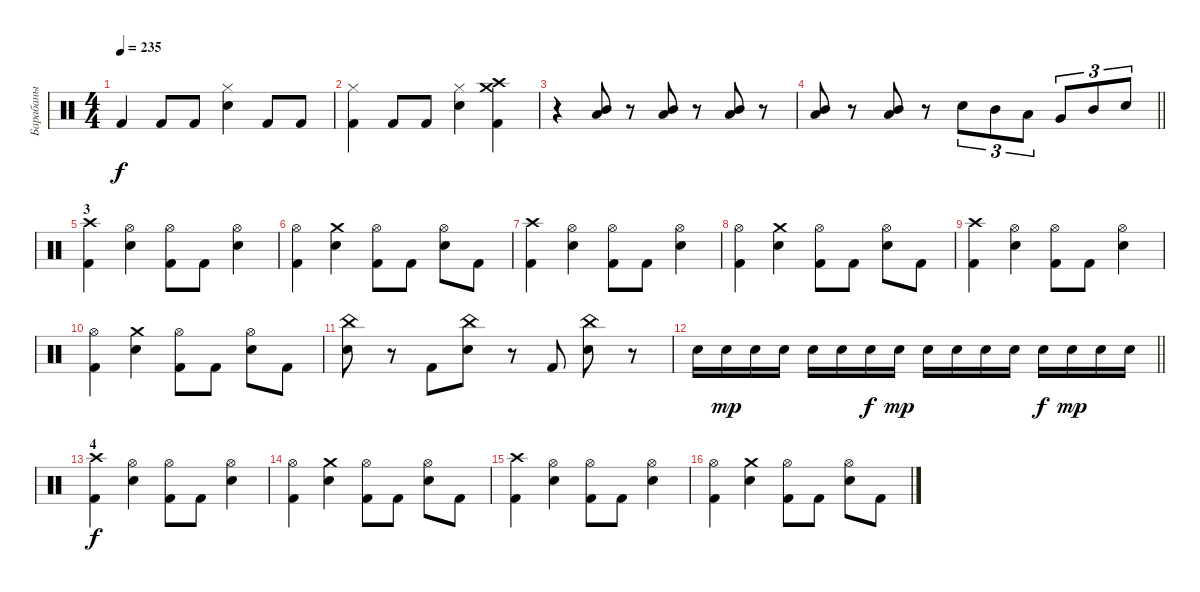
\track ("Барабаны" "Барабаны") {instrument percussion}
\staff {score}
\articulation defaults
\ts (4 4)
\tempo 235
\clef neutral
\ks c "Kick (hit) 2".4{dy f} "Kick (hit) 2".8 "Kick (hit) 2".8
("Hi-Hat (closed)" "Electric Snare (hit)").4 "Kick (hit) 2".8 "Kick (hit) 2".8 |
("Hi-Hat (closed)" "Kick (hit) 2").4 "Kick (hit) 2".8 "Kick (hit) 2".8 ("Hi-Hat (closed)" "Electric Snare (hit)").4 ("Crash high (hit)" "Crash medium (hit)" "Kick (hit) 2").4 |
r.4 ("Mid Tom (hit)" "Low Tom (hit)").8 r.8 ("Mid Tom (hit)" "Low Tom (hit)").8 r.8 ("Mid Tom (hit)" "Low Tom (hit)").8 r.8 |
\barLineRight lightlight
("Mid Tom (hit)" "Low Tom (hit)").8 r.8 ("Mid Tom (hit)" "Low Tom (hit)").8 r.8 "Electric Snare (hit)".8{tu (3 2)} "Mid Tom (hit)".8{tu (3 2)} "Low Tom (hit)".8{tu (3 2)} "Very Low Tom (hit)".8{tu (3 2)} "Mid Tom (hit)".8{tu (3 2)} "Electric Snare (hit)".8{tu (3 2)} |
\section ("" "3")
("Crash high (hit)" "Kick (hit) 2").4 ("Electric Snare (hit)" "Hi-Hat (open)").4 ("Kick (hit) 2" "Hi-Hat (open)").8 "Kick (hit) 2".8 ("Hi-Hat (open)" "Electric Snare (hit)").4 |
("Hi-Hat (open)" "Kick (hit) 2").4 ("Crash medium (hit)" "Electric Snare (hit)").4 ("Hi-Hat (open)" "Kick (hit) 2").8 "Kick (hit) 2".8 ("Hi-Hat (open)" "Electric Snare (hit)").8 "Kick (hit) 2".8 |
("Crash high (hit)" "Kick (hit) 2").4 ("Electric Snare (hit)" "Hi-Hat (open)").4 ("Kick (hit) 2" "Hi-Hat (open)").8 "Kick (hit) 2".8 ("Hi-Hat (open)" "Electric Snare (hit)").4 |
("Hi-Hat (open)" "Kick (hit) 2").4 ("Crash medium (hit)" "Electric Snare (hit)").4 ("Hi-Hat (open)" "Kick (hit) 2").8 "Kick (hit) 2".8 ("Hi-Hat (open)" "Electric Snare (hit)").8 "Kick (hit) 2".8 |
("Crash high (hit)" "Kick (hit) 2").4 ("Electric Snare (hit)" "Hi-Hat (open)").4 ("Kick (hit) 2" "Hi-Hat (open)").8 "Kick (hit) 2".8 ("Hi-Hat (open)" "Electric Snare (hit)").4 |
("Hi-Hat (open)" "Kick (hit) 2").4 ("Crash medium (hit)" "Electric Snare (hit)").4 ("Hi-Hat (open)" "Kick (hit) 2").8 "Kick (hit) 2".8 ("Hi-Hat (open)" "Electric Snare (hit)").8 "Kick (hit) 2".8 |
("China (hit)" "Electric Snare (hit)").8 r.8 "Kick (hit) 2".8 ("China (hit)" "Electric Snare (hit)").8 r.8 "Kick (hit) 2".8 ("China (hit)" "Electric Snare (hit)").8 r.8 |
\barLineRight lightlight "Electric Snare (hit)".16 "Electric Snare (hit)".16{dy mp} "Electric Snare (hit)".16 "Electric Snare (hit)".16 "Electric Snare (hit)".16 "Electric Snare (hit)".16 "Electric Snare (hit)".16{dy f} "Electric Snare (hit)".16{dy mp} "Electric Snare (hit)".16 "Electric Snare (hit)".16 "Electric Snare (hit)".16 "Electric Snare (hit)".16 "Electric Snare (hit)".16{dy f} "Electric Snare (hit)".16{dy mp} "Electric Snare (hit)".16 "Electric Snare (hit)".16
|
\section ("" "4")
("Crash high (hit)" "Kick (hit) 2").4{dy f} ("Electric Snare (hit)" "Hi-Hat (open)").4 ("Kick (hit) 2" "Hi-Hat (open)").8 "Kick (hit) 2".8 ("Hi-Hat (open)" "Electric Snare (hit)").4 |
("Hi-Hat (open)" "Kick (hit) 2").4 ("Crash medium (hit)" "Electric Snare (hit)").4 ("Hi-Hat (open)" "Kick (hit) 2").8 "Kick (hit) 2".8 ("Hi-Hat (open)" "Electric Snare (hit)").8 "Kick (hit) 2".8 |
("Crash high (hit)" "Kick (hit) 2").4 ("Electric Snare (hit)" "Hi-Hat (open)").4 ("Kick (hit) 2" "Hi-Hat (open)").8 "Kick (hit) 2".8 ("Hi-Hat (open)" "Electric Snare (hit)").4 |
("Hi-Hat (open)" "Kick (hit) 2").4 ("Crash medium (hit)" "Electric Snare (hit)").4 ("Hi-Hat (open)" "Kick (hit) 2").8 "Kick (hit) 2".8 ("Hi-Hat (open)" "Electric Snare (hit)").8 "Kick (hit) 2".8
